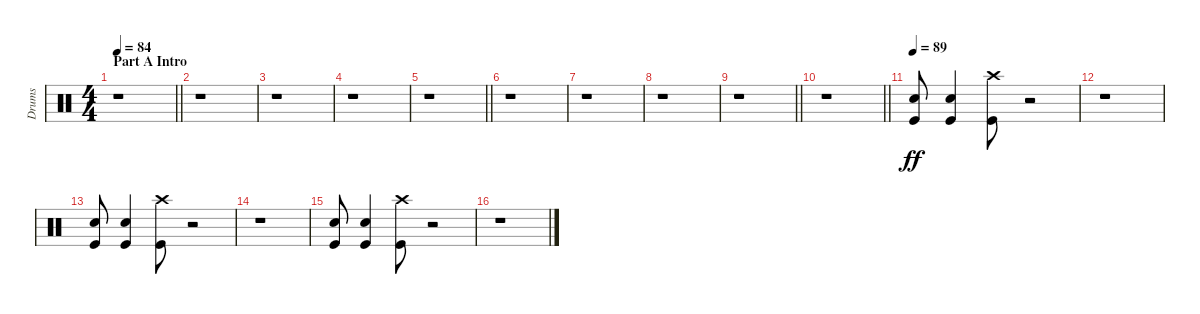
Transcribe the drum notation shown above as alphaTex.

\track ("Drums" "Drums") {instrument percussion}
\staff {score}
\articulation defaults
\ts (4 4)
\section ("" "Part A Intro")
\tempo 84
\clef neutral
\barLineRight lightlight
\ks c
r.1{dy ff} |
r.1 |
r.1 |
r.1 |
\barLineRight lightlight
r.1 |
r.1 |
r.1 |
r.1 |
\barLineRight lightlight
r.1 |
\barLineRight lightlight
r.1 |
\tempo 89
("Electric Snare (hit)" "Kick (hit)").8 ("Electric Snare (hit)" "Kick (hit)").4 ("Crash high (hit)" "Kick (hit)").8 r.2 |
r.1 |
("Electric Snare (hit)" "Kick (hit)").8 ("Electric Snare (hit)" "Kick (hit)").4 ("Crash high (hit)" "Kick (hit)").8 r.2 |
r.1 |
("Electric Snare (hit)" "Kick (hit)").8 ("Electric Snare (hit)" "Kick (hit)").4 ("Crash high (hit)" "Kick (hit)").8 r.2 |
r.1
